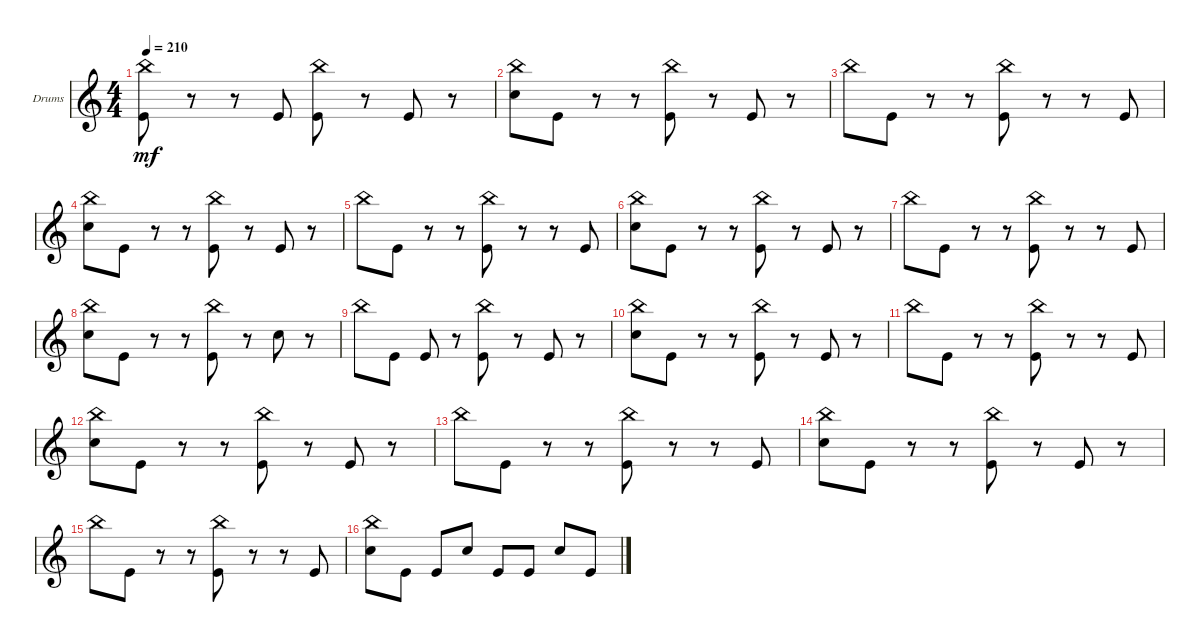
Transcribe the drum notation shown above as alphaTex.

\bracketExtendMode groupsimilarinstruments
\firstSystemTrackNameOrientation horizontal
\otherSystemsTrackNameOrientation horizontal
\track ("Drumkit" "Drums") {instrument percussion}
\staff {score}
\articulation defaults
\ts (4 4)
\tempo 210
\clef g2
\ks c
("Kick (hit)" "China (hit)").8{dy mf} r.8 r.8 "Kick (hit)".8 ("Kick (hit)" "China (hit)").8 r.8 "Kick (hit)".8 r.8 |
("China (hit)" "Snare (hit) 2").8 "Kick (hit)".8 r.8 r.8 ("China (hit)" "Kick (hit)").8 r.8 "Kick (hit)".8 r.8 |
"China (hit)".8 "Kick (hit)".8 r.8 r.8 ("China (hit)" "Kick (hit)").8 r.8 r.8 "Kick (hit)".8 |
("China (hit)" "Snare (hit) 2").8 "Kick (hit)".8 r.8 r.8 ("China (hit)" "Kick (hit)").8 r.8 "Kick (hit)".8 r.8 |
"China (hit)".8 "Kick (hit)".8 r.8 r.8 ("China (hit)" "Kick (hit)").8 r.8 r.8 "Kick (hit)".8 |
("China (hit)" "Snare (hit) 2").8 "Kick (hit)".8 r.8 r.8 ("China (hit)" "Kick (hit)").8 r.8 "Kick (hit)".8 r.8 |
"China (hit)".8 "Kick (hit)".8 r.8 r.8 ("China (hit)" "Kick (hit)").8 r.8 r.8 "Kick (hit)".8 |
("China (hit)" "Snare (hit) 2").8 "Kick (hit)".8 r.8 r.8 ("China (hit)" "Kick (hit)").8 r.8 "Snare (hit) 2".8 r.8 |
"China (hit)".8 "Kick (hit)".8 "Kick (hit)".8 r.8 ("China (hit)" "Kick (hit)").8 r.8 "Kick (hit)".8 r.8 |
("China (hit)" "Snare (hit) 2").8 "Kick (hit)".8 r.8 r.8 ("China (hit)" "Kick (hit)").8 r.8 "Kick (hit)".8 r.8 |
"China (hit)".8 "Kick (hit)".8 r.8 r.8 ("China (hit)" "Kick (hit)").8 r.8 r.8 "Kick (hit)".8 |
("China (hit)" "Snare (hit) 2").8 "Kick (hit)".8 r.8 r.8 ("China (hit)" "Kick (hit)").8 r.8 "Kick (hit)".8 r.8 |
"China (hit)".8 "Kick (hit)".8 r.8 r.8 ("China (hit)" "Kick (hit)").8 r.8 r.8 "Kick (hit)".8 |
("China (hit)" "Snare (hit) 2").8 "Kick (hit)".8 r.8 r.8 ("China (hit)" "Kick (hit)").8 r.8 "Kick (hit)".8 r.8 |
"China (hit)".8 "Kick (hit)".8 r.8 r.8 ("China (hit)" "Kick (hit)").8 r.8 r.8 "Kick (hit)".8 |
("China (hit)" "Snare (hit) 2").8 "Kick (hit)".8 "Kick (hit)".8 "Snare (hit) 2".8 "Kick (hit)".8 "Kick (hit)".8 "Snare (hit) 2".8 "Kick (hit)".8
